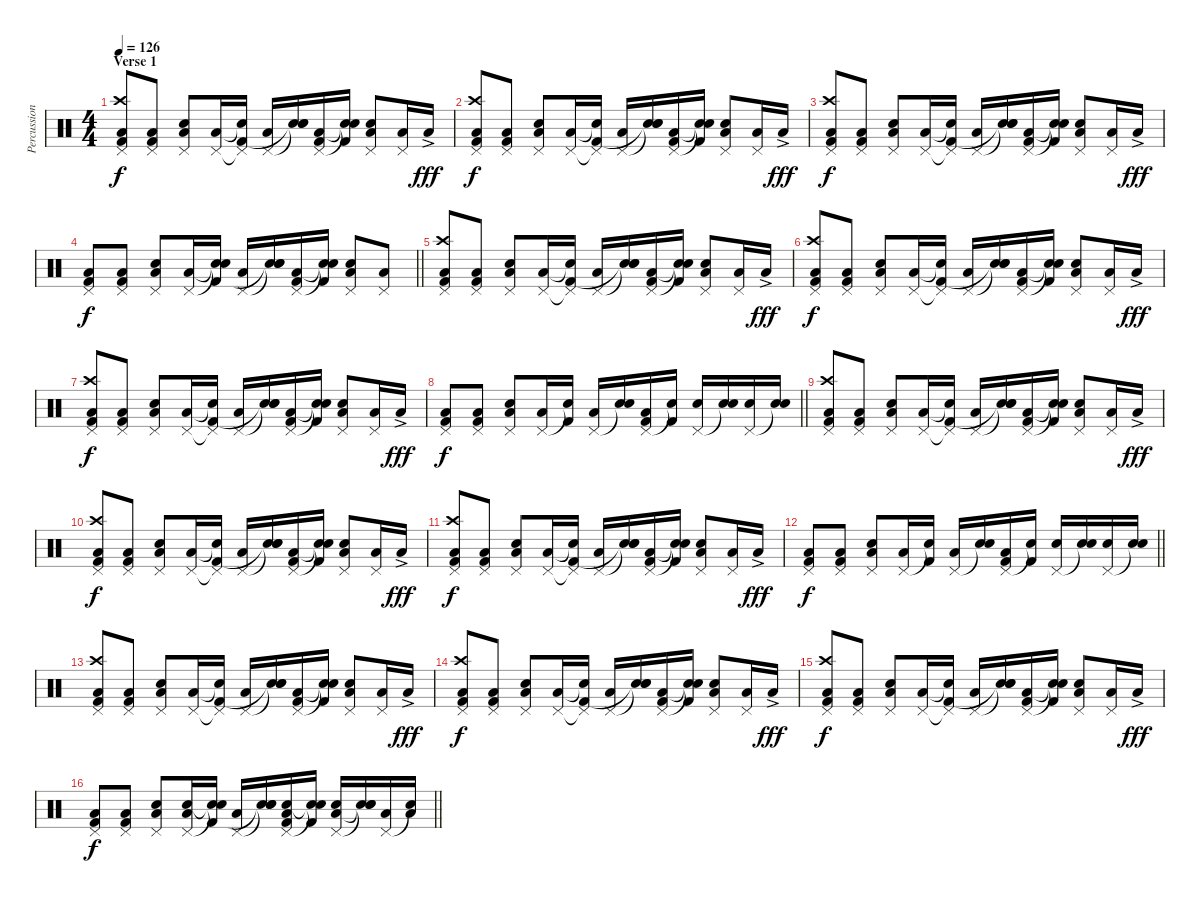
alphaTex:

\track ("Percussion" "Percussion") {instrument percussion}
\staff {score}
\articulation defaults
\ts (4 4)
\section ("" "Verse 1")
\tempo 126
\clef neutral
\ks c
("Pedal Hi-Hat (hit)" "Crash high (hit)" "Low Floor Tom (hit)" "Kick (hit) 2").8{dy f} ("Pedal Hi-Hat (hit)" "Low Floor Tom (hit)" "Kick (hit) 2").8 ("Pedal Hi-Hat (hit)" "Snare (hit) 2" "Low Floor Tom (hit)").8 ("Pedal Hi-Hat (hit)" "Low Floor Tom (hit)").16 ("Pedal Hi-Hat (hit)"{t} "Snare (hit)"{t} "Kick (hit) 2").16 ("Pedal Hi-Hat (hit)" "Low Floor Tom (hit)").16 ("Snare (hit)"{t} "Snare (hit) 2" "Snare (hit)"{t}).16 ("Pedal Hi-Hat (hit)" "Low Floor Tom (hit)" "Kick (hit) 2").16 ("Snare (hit)"{t} "Snare (hit)"{t} "Kick (hit) 2").16 ("Pedal Hi-Hat (hit)" "Snare (hit) 2" "Low Floor Tom (hit)").8 ("Pedal Hi-Hat (hit)" "Low Floor Tom (hit)").16 "Low Floor Tom (hit)"{ac}.16{dy fff} |
("Pedal Hi-Hat (hit)" "Crash high (hit)" "Low Floor Tom (hit)" "Kick (hit) 2").8{dy f} ("Pedal Hi-Hat (hit)" "Low Floor Tom (hit)" "Kick (hit) 2").8 ("Pedal Hi-Hat (hit)" "Snare (hit) 2" "Low Floor Tom (hit)").8 ("Pedal Hi-Hat (hit)" "Low Floor Tom (hit)").16 ("Pedal Hi-Hat (hit)"{t} "Snare (hit)"{t} "Kick (hit) 2").16 ("Pedal Hi-Hat (hit)" "Low Floor Tom (hit)").16 ("Snare (hit)"{t} "Snare (hit) 2" "Snare (hit)"{t}).16 ("Pedal Hi-Hat (hit)" "Low Floor Tom (hit)" "Kick (hit) 2").16 ("Snare (hit)"{t} "Snare (hit)"{t} "Kick (hit) 2").16 ("Pedal Hi-Hat (hit)" "Snare (hit) 2" "Low Floor Tom (hit)").8 ("Pedal Hi-Hat (hit)" "Low Floor Tom (hit)").16 "Low Floor Tom (hit)"{ac}.16{dy fff} |
("Pedal Hi-Hat (hit)" "Crash high (hit)" "Low Floor Tom (hit)" "Kick (hit) 2").8{dy f} ("Pedal Hi-Hat (hit)" "Low Floor Tom (hit)" "Kick (hit) 2").8 ("Pedal Hi-Hat (hit)" "Snare (hit) 2" "Low Floor Tom (hit)").8 ("Pedal Hi-Hat (hit)" "Low Floor Tom (hit)").16 ("Pedal Hi-Hat (hit)"{t} "Snare (hit)"{t} "Kick (hit) 2").16 ("Pedal Hi-Hat (hit)" "Low Floor Tom (hit)").16 ("Snare (hit)"{t} "Snare (hit) 2" "Snare (hit)"{t}).16 ("Pedal Hi-Hat (hit)" "Low Floor Tom (hit)" "Kick (hit) 2").16 ("Snare (hit)"{t} "Snare (hit)"{t} "Kick (hit) 2").16 ("Pedal Hi-Hat (hit)" "Snare (hit) 2" "Low Floor Tom (hit)").8 ("Pedal Hi-Hat (hit)" "Low Floor Tom (hit)").16 "Low Floor Tom (hit)"{ac}.16{dy fff} |
\barLineRight lightlight
("Pedal Hi-Hat (hit)" "Low Floor Tom (hit)" "Kick (hit) 2").8{dy f} ("Pedal Hi-Hat (hit)" "Low Floor Tom (hit)" "Kick (hit) 2").8 ("Pedal Hi-Hat (hit)" "Snare (hit) 2" "Low Floor Tom (hit)").8 ("Pedal Hi-Hat (hit)" "Low Floor Tom (hit)").16 ("Snare (hit)"{t} "Snare (hit)"{t} "Kick (hit) 2").16 ("Pedal Hi-Hat (hit)" "Low Floor Tom (hit)").16 ("Snare (hit)"{t} "Snare (hit) 2" "Snare (hit)"{t}).16 ("Pedal Hi-Hat (hit)" "Low Floor Tom (hit)" "Kick (hit) 2").16 ("Snare (hit)"{t} "Snare (hit)"{t} "Kick (hit) 2").16 ("Pedal Hi-Hat (hit)" "Snare (hit) 2" "Low Floor Tom (hit)").8 ("Pedal Hi-Hat (hit)" "Low Floor Tom (hit)").8 |
("Pedal Hi-Hat (hit)" "Crash high (hit)" "Low Floor Tom (hit)" "Kick (hit) 2").8 ("Pedal Hi-Hat (hit)" "Low Floor Tom (hit)" "Kick (hit) 2").8 ("Pedal Hi-Hat (hit)" "Snare (hit) 2" "Low Floor Tom (hit)").8 ("Pedal Hi-Hat (hit)" "Low Floor Tom (hit)").16 ("Pedal Hi-Hat (hit)"{t} "Snare (hit)"{t} "Kick (hit) 2").16 ("Pedal Hi-Hat (hit)" "Low Floor Tom (hit)").16 ("Snare (hit)"{t} "Snare (hit) 2" "Snare (hit)"{t}).16 ("Pedal Hi-Hat (hit)" "Low Floor Tom (hit)" "Kick (hit) 2").16 ("Snare (hit)"{t} "Snare (hit)"{t} "Kick (hit) 2").16 ("Pedal Hi-Hat (hit)" "Snare (hit) 2" "Low Floor Tom (hit)").8 ("Pedal Hi-Hat (hit)" "Low Floor Tom (hit)").16 "Low Floor Tom (hit)"{ac}.16{dy fff} |
("Pedal Hi-Hat (hit)" "Crash high (hit)" "Low Floor Tom (hit)" "Kick (hit) 2").8{dy f} ("Pedal Hi-Hat (hit)" "Low Floor Tom (hit)" "Kick (hit) 2").8 ("Pedal Hi-Hat (hit)" "Snare (hit) 2" "Low Floor Tom (hit)").8 ("Pedal Hi-Hat (hit)" "Low Floor Tom (hit)").16 ("Pedal Hi-Hat (hit)"{t} "Snare (hit)"{t} "Kick (hit) 2").16 ("Pedal Hi-Hat (hit)" "Low Floor Tom (hit)").16 ("Snare (hit)"{t} "Snare (hit) 2" "Snare (hit)"{t}).16 ("Pedal Hi-Hat (hit)" "Low Floor Tom (hit)" "Kick (hit) 2").16 ("Snare (hit)"{t} "Snare (hit)"{t} "Kick (hit) 2").16 ("Pedal Hi-Hat (hit)" "Snare (hit) 2" "Low Floor Tom (hit)").8 ("Pedal Hi-Hat (hit)" "Low Floor Tom (hit)").16 "Low Floor Tom (hit)"{ac}.16{dy fff} |
("Pedal Hi-Hat (hit)" "Crash high (hit)" "Low Floor Tom (hit)" "Kick (hit) 2").8{dy f} ("Pedal Hi-Hat (hit)" "Low Floor Tom (hit)" "Kick (hit) 2").8 ("Pedal Hi-Hat (hit)" "Snare (hit) 2" "Low Floor Tom (hit)").8 ("Pedal Hi-Hat (hit)" "Low Floor Tom (hit)").16 ("Pedal Hi-Hat (hit)"{t} "Snare (hit)"{t} "Kick (hit) 2").16 ("Pedal Hi-Hat (hit)" "Low Floor Tom (hit)").16 ("Snare (hit)"{t} "Snare (hit) 2" "Snare (hit)"{t}).16 ("Pedal Hi-Hat (hit)" "Low Floor Tom (hit)" "Kick (hit) 2").16 ("Snare (hit)"{t} "Snare (hit)"{t} "Kick (hit) 2").16 ("Pedal Hi-Hat (hit)" "Snare (hit) 2" "Low Floor Tom (hit)").8 ("Pedal Hi-Hat (hit)" "Low Floor Tom (hit)").16 "Low Floor Tom (hit)"{ac}.16{dy fff} |
\barLineRight lightlight
("Pedal Hi-Hat (hit)" "Low Floor Tom (hit)" "Kick (hit) 2").8{dy f} ("Pedal Hi-Hat (hit)" "Low Floor Tom (hit)" "Kick (hit) 2").8 ("Pedal Hi-Hat (hit)" "Snare (hit) 2" "Low Floor Tom (hit)").8 ("Pedal Hi-Hat (hit)" "Low Floor Tom (hit)").16 ("Snare (hit)"{t} "Kick (hit) 2").16 ("Pedal Hi-Hat (hit)" "Low Floor Tom (hit)").16 ("Snare (hit)"{t} "Snare (hit) 2").16 ("Pedal Hi-Hat (hit)" "Low Floor Tom (hit)" "Kick (hit) 2").16 ("Snare (hit)"{t} "Kick (hit) 2").16 ("Pedal Hi-Hat (hit)" "Snare (hit) 2").16 ("Snare (hit)"{t} "Snare (hit) 2").16 ("Pedal Hi-Hat (hit)" "Snare (hit) 2").16 ("Snare (hit)"{t} "Snare (hit) 2").16 |
("Pedal Hi-Hat (hit)" "Crash high (hit)" "Low Floor Tom (hit)" "Kick (hit) 2").8 ("Pedal Hi-Hat (hit)" "Low Floor Tom (hit)" "Kick (hit) 2").8 ("Pedal Hi-Hat (hit)" "Snare (hit) 2" "Low Floor Tom (hit)").8 ("Pedal Hi-Hat (hit)" "Low Floor Tom (hit)").16 ("Pedal Hi-Hat (hit)"{t} "Snare (hit)"{t} "Kick (hit) 2").16 ("Pedal Hi-Hat (hit)" "Low Floor Tom (hit)").16 ("Snare (hit)"{t} "Snare (hit) 2" "Snare (hit)"{t}).16 ("Pedal Hi-Hat (hit)" "Low Floor Tom (hit)" "Kick (hit) 2").16 ("Snare (hit)"{t} "Snare (hit)"{t} "Kick (hit) 2").16 ("Pedal Hi-Hat (hit)" "Snare (hit) 2" "Low Floor Tom (hit)").8 ("Pedal Hi-Hat (hit)" "Low Floor Tom (hit)").16 "Low Floor Tom (hit)"{ac}.16{dy fff} |
("Pedal Hi-Hat (hit)" "Crash high (hit)" "Low Floor Tom (hit)" "Kick (hit) 2").8{dy f} ("Pedal Hi-Hat (hit)" "Low Floor Tom (hit)" "Kick (hit) 2").8 ("Pedal Hi-Hat (hit)" "Snare (hit) 2" "Low Floor Tom (hit)").8 ("Pedal Hi-Hat (hit)" "Low Floor Tom (hit)").16 ("Pedal Hi-Hat (hit)"{t} "Snare (hit)"{t} "Kick (hit) 2").16 ("Pedal Hi-Hat (hit)" "Low Floor Tom (hit)").16 ("Snare (hit)"{t} "Snare (hit) 2" "Snare (hit)"{t}).16 ("Pedal Hi-Hat (hit)" "Low Floor Tom (hit)" "Kick (hit) 2").16 ("Snare (hit)"{t} "Snare (hit)"{t} "Kick (hit) 2").16 ("Pedal Hi-Hat (hit)" "Snare (hit) 2" "Low Floor Tom (hit)").8 ("Pedal Hi-Hat (hit)" "Low Floor Tom (hit)").16 "Low Floor Tom (hit)"{ac}.16{dy fff} |
("Pedal Hi-Hat (hit)" "Crash high (hit)" "Low Floor Tom (hit)" "Kick (hit) 2").8{dy f} ("Pedal Hi-Hat (hit)" "Low Floor Tom (hit)" "Kick (hit) 2").8 ("Pedal Hi-Hat (hit)" "Snare (hit) 2" "Low Floor Tom (hit)").8 ("Pedal Hi-Hat (hit)" "Low Floor Tom (hit)").16 ("Pedal Hi-Hat (hit)"{t} "Snare (hit)"{t} "Kick (hit) 2").16 ("Pedal Hi-Hat (hit)" "Low Floor Tom (hit)").16 ("Snare (hit)"{t} "Snare (hit) 2" "Snare (hit)"{t}).16 ("Pedal Hi-Hat (hit)" "Low Floor Tom (hit)" "Kick (hit) 2").16 ("Snare (hit)"{t} "Snare (hit)"{t} "Kick (hit) 2").16 ("Pedal Hi-Hat (hit)" "Snare (hit) 2" "Low Floor Tom (hit)").8 ("Pedal Hi-Hat (hit)" "Low Floor Tom (hit)").16 "Low Floor Tom (hit)"{ac}.16{dy fff} |
\barLineRight lightlight
("Pedal Hi-Hat (hit)" "Low Floor Tom (hit)" "Kick (hit) 2").8{dy f} ("Pedal Hi-Hat (hit)" "Low Floor Tom (hit)" "Kick (hit) 2").8 ("Pedal Hi-Hat (hit)" "Snare (hit) 2" "Low Floor Tom (hit)").8 ("Pedal Hi-Hat (hit)" "Low Floor Tom (hit)").16 ("Snare (hit)"{t} "Kick (hit) 2").16 ("Pedal Hi-Hat (hit)" "Low Floor Tom (hit)").16 ("Snare (hit)"{t} "Snare (hit) 2").16 ("Pedal Hi-Hat (hit)" "Low Floor Tom (hit)" "Kick (hit) 2").16 ("Snare (hit)"{t} "Kick (hit) 2").16 ("Pedal Hi-Hat (hit)" "Snare (hit) 2").16 ("Snare (hit)"{t} "Snare (hit) 2").16 ("Pedal Hi-Hat (hit)" "Snare (hit) 2").16 ("Snare (hit)"{t} "Snare (hit) 2").16 |
("Pedal Hi-Hat (hit)" "Crash high (hit)" "Low Floor Tom (hit)" "Kick (hit) 2").8 ("Pedal Hi-Hat (hit)" "Low Floor Tom (hit)" "Kick (hit) 2").8 ("Pedal Hi-Hat (hit)" "Snare (hit) 2" "Low Floor Tom (hit)").8 ("Pedal Hi-Hat (hit)" "Low Floor Tom (hit)").16 ("Pedal Hi-Hat (hit)"{t} "Snare (hit)"{t} "Kick (hit) 2").16 ("Pedal Hi-Hat (hit)" "Low Floor Tom (hit)").16 ("Snare (hit)"{t} "Snare (hit) 2" "Snare (hit)"{t}).16 ("Pedal Hi-Hat (hit)" "Low Floor Tom (hit)" "Kick (hit) 2").16 ("Snare (hit)"{t} "Snare (hit)"{t} "Kick (hit) 2").16 ("Pedal Hi-Hat (hit)" "Snare (hit) 2" "Low Floor Tom (hit)").8 ("Pedal Hi-Hat (hit)" "Low Floor Tom (hit)").16 "Low Floor Tom (hit)"{ac}.16{dy fff} |
("Pedal Hi-Hat (hit)" "Crash high (hit)" "Low Floor Tom (hit)" "Kick (hit) 2").8{dy f} ("Pedal Hi-Hat (hit)" "Low Floor Tom (hit)" "Kick (hit) 2").8 ("Pedal Hi-Hat (hit)" "Snare (hit) 2" "Low Floor Tom (hit)").8 ("Pedal Hi-Hat (hit)" "Low Floor Tom (hit)").16 ("Pedal Hi-Hat (hit)"{t} "Snare (hit)"{t} "Kick (hit) 2").16 ("Pedal Hi-Hat (hit)" "Low Floor Tom (hit)").16 ("Snare (hit)"{t} "Snare (hit) 2" "Snare (hit)"{t}).16 ("Pedal Hi-Hat (hit)" "Low Floor Tom (hit)" "Kick (hit) 2").16 ("Snare (hit)"{t} "Snare (hit)"{t} "Kick (hit) 2").16 ("Pedal Hi-Hat (hit)" "Snare (hit) 2" "Low Floor Tom (hit)").8 ("Pedal Hi-Hat (hit)" "Low Floor Tom (hit)").16 "Low Floor Tom (hit)"{ac}.16{dy fff} |
("Pedal Hi-Hat (hit)" "Crash high (hit)" "Low Floor Tom (hit)" "Kick (hit) 2").8{dy f} ("Pedal Hi-Hat (hit)" "Low Floor Tom (hit)" "Kick (hit) 2").8 ("Pedal Hi-Hat (hit)" "Snare (hit) 2" "Low Floor Tom (hit)").8 ("Pedal Hi-Hat (hit)" "Low Floor Tom (hit)").16 ("Pedal Hi-Hat (hit)"{t} "Snare (hit)"{t} "Kick (hit) 2").16 ("Pedal Hi-Hat (hit)" "Low Floor Tom (hit)").16 ("Snare (hit)"{t} "Snare (hit) 2" "Snare (hit)"{t}).16 ("Pedal Hi-Hat (hit)" "Low Floor Tom (hit)" "Kick (hit) 2").16 ("Snare (hit)"{t} "Snare (hit)"{t} "Kick (hit) 2").16 ("Pedal Hi-Hat (hit)" "Snare (hit) 2" "Low Floor Tom (hit)").8 ("Pedal Hi-Hat (hit)" "Low Floor Tom (hit)").16 "Low Floor Tom (hit)"{ac}.16{dy fff} |
\barLineRight lightlight
("Pedal Hi-Hat (hit)" "Low Floor Tom (hit)" "Kick (hit) 2").8{dy f} ("Pedal Hi-Hat (hit)" "Low Floor Tom (hit)" "Kick (hit) 2").8 ("Pedal Hi-Hat (hit)" "Snare (hit) 2" "Low Floor Tom (hit)").8 ("Pedal Hi-Hat (hit)" "Snare (hit) 2" "Low Floor Tom (hit)").16 ("Snare (hit)"{t} "Snare (hit)"{t} "Kick (hit) 2").16 ("Pedal Hi-Hat (hit)" "Low Floor Tom (hit)").16 ("Snare (hit)"{t} "Snare (hit) 2" "Snare (hit)"{t}).16 ("Pedal Hi-Hat (hit)" "Snare (hit) 2" "Low Floor Tom (hit)" "Kick (hit) 2").16 ("Snare (hit)"{t} "Snare (hit)"{t} "Kick (hit) 2").16 ("Pedal Hi-Hat (hit)" "Snare (hit) 2" "Low Floor Tom (hit)").16 ("Snare (hit)"{t} "Snare (hit) 2" "Snare (hit)"{t}).16 ("Pedal Hi-Hat (hit)" "Low Floor Tom (hit)").16 ("Snare (hit)"{t} "Low Floor Tom (hit)").16
